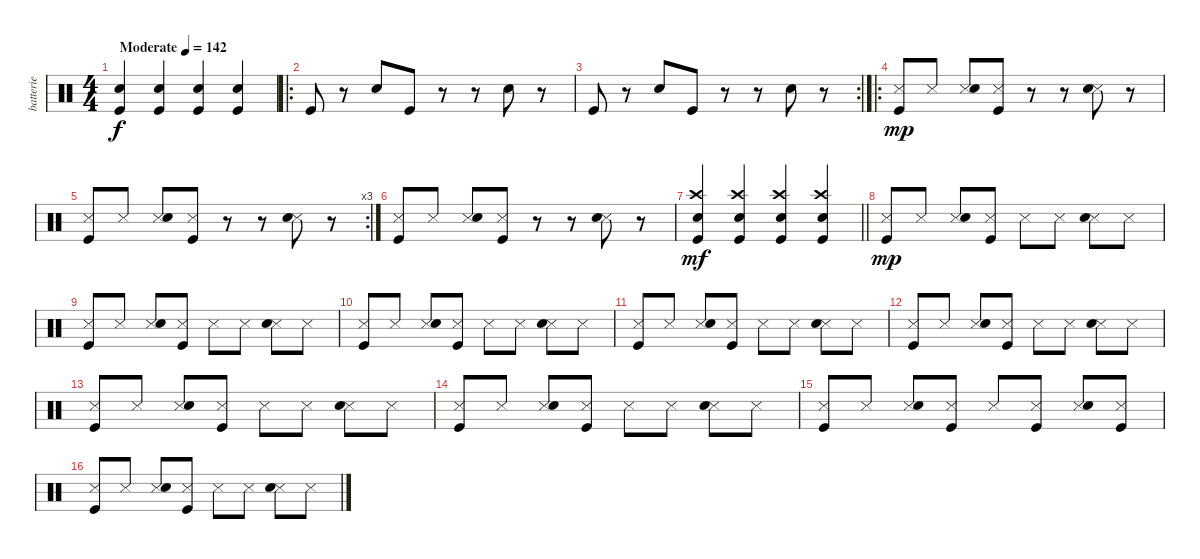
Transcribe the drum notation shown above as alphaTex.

\track ("batterie" "batterie") {instrument percussion}
\staff {score}
\articulation defaults
\ts (4 4)
\tempo (142 "Moderate")
\clef neutral
\ks c
("Electric Snare (hit)" "Kick (hit)").4{dy f} ("Electric Snare (hit)" "Kick (hit)").4 ("Electric Snare (hit)" "Kick (hit)").4 ("Electric Snare (hit)" "Kick (hit)").4 |
\ro "Kick (hit)".8
r.8 "Electric Snare (hit)".8 "Kick (hit)".8 r.8 r.8 "Electric Snare (hit)".8 r.8 |
\rc 2 "Kick (hit)".8
r.8 "Electric Snare (hit)".8 "Kick (hit)".8 r.8 r.8 "Electric Snare (hit)".8 r.8 |
\ro
("Snare (side stick) 3" "Kick (hit)").8{dy mp} "Snare (side stick) 3".8 ("Snare (side stick) 3" "Electric Snare (hit)").8 ("Snare (side stick) 3" "Kick (hit)").8 r.8 r.8 ("Snare (side stick) 3" "Electric Snare (hit)").8 r.8 |
\rc 3
("Snare (side stick) 3" "Kick (hit)").8 "Snare (side stick) 3".8 ("Snare (side stick) 3" "Electric Snare (hit)").8 ("Snare (side stick) 3" "Kick (hit)").8 r.8 r.8 ("Snare (side stick) 3" "Electric Snare (hit)").8 r.8 |
("Snare (side stick) 3" "Kick (hit)").8 "Snare (side stick) 3".8 ("Snare (side stick) 3" "Electric Snare (hit)").8 ("Snare (side stick) 3" "Kick (hit)").8 r.8 r.8 ("Snare (side stick) 3" "Electric Snare (hit)").8 r.8 |
\barLineRight lightlight
("Crash high (hit)" "Snare (hit) 2" "Kick (hit)").4{dy mf} ("Crash high (hit)" "Snare (hit) 2" "Kick (hit)").4 ("Crash high (hit)" "Snare (hit) 2" "Kick (hit)").4 ("Crash high (hit)" "Snare (hit) 2" "Kick (hit)").4 |
("Snare (side stick) 3" "Kick (hit)").8{dy mp} "Snare (side stick) 3".8 ("Snare (side stick) 3" "Electric Snare (hit)").8 ("Snare (side stick) 3" "Kick (hit)").8 "Snare (side stick) 3".8 "Snare (side stick) 3".8 ("Snare (side stick) 3" "Electric Snare (hit)").8 "Snare (side stick) 3".8 |
("Snare (side stick) 3" "Kick (hit)").8 "Snare (side stick) 3".8 ("Snare (side stick) 3" "Electric Snare (hit)").8 ("Snare (side stick) 3" "Kick (hit)").8 "Snare (side stick) 3".8 "Snare (side stick) 3".8 ("Snare (side stick) 3" "Electric Snare (hit)").8 "Snare (side stick) 3".8 |
("Snare (side stick) 3" "Kick (hit)").8 "Snare (side stick) 3".8 ("Snare (side stick) 3" "Electric Snare (hit)").8 ("Snare (side stick) 3" "Kick (hit)").8 "Snare (side stick) 3".8 "Snare (side stick) 3".8 ("Snare (side stick) 3" "Electric Snare (hit)").8 "Snare (side stick) 3".8 |
("Snare (side stick) 3" "Kick (hit)").8 "Snare (side stick) 3".8 ("Snare (side stick) 3" "Electric Snare (hit)").8 ("Snare (side stick) 3" "Kick (hit)").8 "Snare (side stick) 3".8 "Snare (side stick) 3".8 ("Snare (side stick) 3" "Electric Snare (hit)").8 "Snare (side stick) 3".8 |
("Snare (side stick) 3" "Kick (hit)").8 "Snare (side stick) 3".8 ("Snare (side stick) 3" "Electric Snare (hit)").8 ("Snare (side stick) 3" "Kick (hit)").8 "Snare (side stick) 3".8 "Snare (side stick) 3".8 ("Snare (side stick) 3" "Electric Snare (hit)").8 "Snare (side stick) 3".8 |
("Snare (side stick) 3" "Kick (hit)").8 "Snare (side stick) 3".8 ("Snare (side stick) 3" "Electric Snare (hit)").8 ("Snare (side stick) 3" "Kick (hit)").8 "Snare (side stick) 3".8 "Snare (side stick) 3".8 ("Snare (side stick) 3" "Electric Snare (hit)").8 "Snare (side stick) 3".8 |
("Snare (side stick) 3" "Kick (hit)").8 "Snare (side stick) 3".8 ("Snare (side stick) 3" "Electric Snare (hit)").8 ("Snare (side stick) 3" "Kick (hit)").8 "Snare (side stick) 3".8 "Snare (side stick) 3".8 ("Snare (side stick) 3" "Electric Snare (hit)").8 "Snare (side stick) 3".8 |
("Snare (side stick) 3" "Kick (hit)").8 "Snare (side stick) 3".8 ("Snare (side stick) 3" "Electric Snare (hit)").8 ("Snare (side stick) 3" "Kick (hit)").8 "Snare (side stick) 3".8 ("Snare (side stick) 3" "Kick (hit)").8 ("Snare (side stick) 3" "Electric Snare (hit)").8 ("Snare (side stick) 3" "Kick (hit)").8 |
("Snare (side stick) 3" "Kick (hit)").8 "Snare (side stick) 3".8 ("Snare (side stick) 3" "Electric Snare (hit)").8 ("Snare (side stick) 3" "Kick (hit)").8 "Snare (side stick) 3".8 "Snare (side stick) 3".8 ("Snare (side stick) 3" "Electric Snare (hit)").8 "Snare (side stick) 3".8
